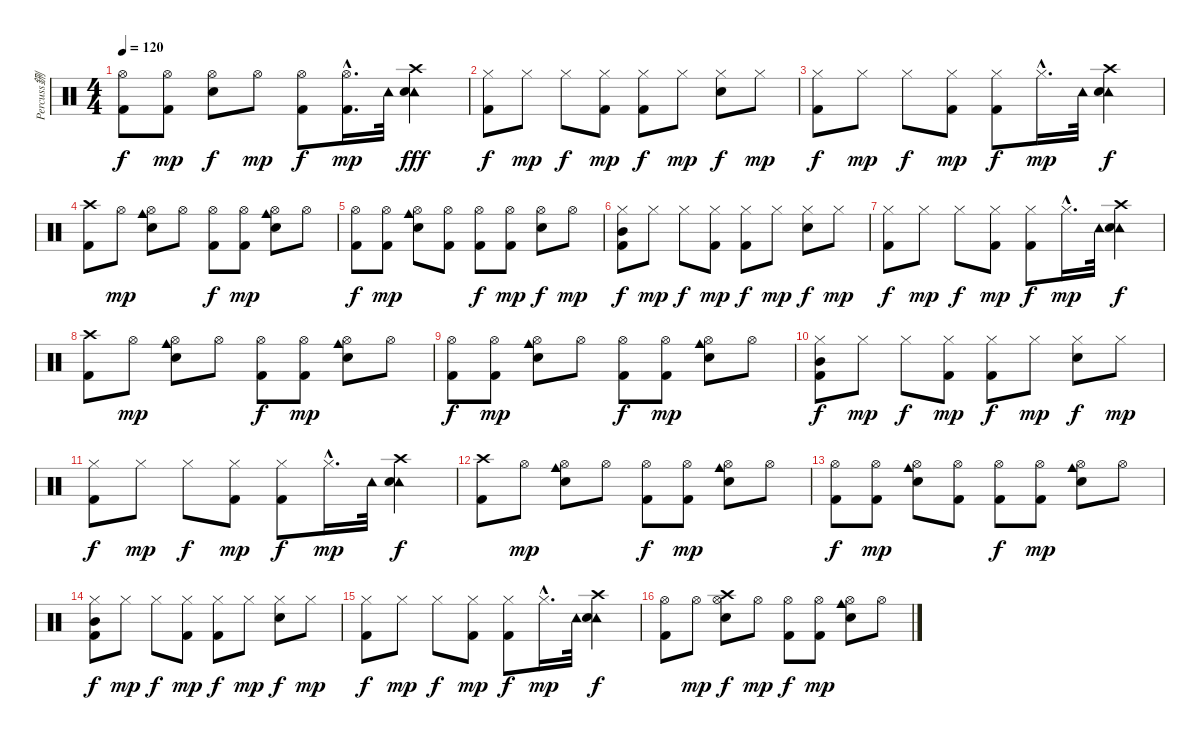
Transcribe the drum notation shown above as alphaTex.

\track ("Percuss鉶" "Percuss鉶") {instrument percussion}
\staff {score}
\articulation defaults
\ts (4 4)
\tempo 120
\clef neutral
\ks c
("Hi-Hat (open)" "Kick (hit) 2").8{dy f} ("Hi-Hat (open)" "Kick (hit) 2").8{dy mp} ("Hi-Hat (open)" "Snare (hit) 2").8{dy f} "Hi-Hat (open)".8{dy mp} ("Hi-Hat (open)" "Kick (hit) 2").8{dy f} ("Hi-Hat (open)"{hac} "Kick (hit) 2"{hac}).16{d dy mp} "Tambourine (hit)".32 ("Crash high (hit)" "Tambourine (hit)" "Snare (hit) 2").4{dy fff} |
("Hi-Hat (closed)" "Kick (hit) 2").8{dy f} "Hi-Hat (closed)".8{dy mp} "Hi-Hat (closed)".8{dy f} ("Hi-Hat (closed)" "Kick (hit) 2").8{dy mp} ("Hi-Hat (closed)" "Kick (hit) 2").8{dy f} "Hi-Hat (closed)".8{dy mp} ("Hi-Hat (closed)" "Snare (hit) 2").8{dy f} "Hi-Hat (closed)".8{dy mp} |
("Hi-Hat (closed)" "Kick (hit) 2").8{dy f} "Hi-Hat (closed)".8{dy mp} "Hi-Hat (closed)".8{dy f} ("Hi-Hat (closed)" "Kick (hit) 2").8{dy mp} ("Hi-Hat (closed)" "Kick (hit) 2").8{dy f} "Hi-Hat (closed)"{hac}.16{d dy mp} "Tambourine (hit)".32 ("Crash high (hit)" "Tambourine (hit)" "Snare (hit) 2").4{dy f} |
("Crash high (hit)" "Kick (hit) 2").8 "Hi-Hat (open)".8{dy mp} ("Cowbell medium (hit)" "Hi-Hat (open)" "Snare (hit) 2").8 "Hi-Hat (open)".8 ("Hi-Hat (open)" "Kick (hit) 2").8{dy f} ("Hi-Hat (open)" "Kick (hit) 2").8{dy mp} ("Cowbell medium (hit)" "Hi-Hat (open)" "Snare (hit) 2").8 "Hi-Hat (open)".8 |
("Hi-Hat (open)" "Kick (hit) 2").8{dy f} ("Hi-Hat (open)" "Kick (hit) 2").8{dy mp} ("Cowbell medium (hit)" "Hi-Hat (open)" "Snare (hit) 2").8 ("Hi-Hat (open)" "Kick (hit) 2").8 ("Hi-Hat (open)" "Kick (hit) 2").8{dy f} ("Hi-Hat (open)" "Kick (hit) 2").8{dy mp} ("Hi-Hat (open)" "Snare (hit) 2").8{dy f} "Hi-Hat (open)".8{dy mp} |
("Hi-Hat (closed)" "Mid Tom (hit)" "Kick (hit) 2").8{dy f} "Hi-Hat (closed)".8{dy mp} "Hi-Hat (closed)".8{dy f} ("Hi-Hat (closed)" "Kick (hit) 2").8{dy mp} ("Hi-Hat (closed)" "Kick (hit) 2").8{dy f} "Hi-Hat (closed)".8{dy mp} ("Hi-Hat (closed)" "Snare (hit) 2").8{dy f} "Hi-Hat (closed)".8{dy mp} |
("Hi-Hat (closed)" "Kick (hit) 2").8{dy f} "Hi-Hat (closed)".8{dy mp} "Hi-Hat (closed)".8{dy f} ("Hi-Hat (closed)" "Kick (hit) 2").8{dy mp} ("Hi-Hat (closed)" "Kick (hit) 2").8{dy f} "Hi-Hat (closed)"{hac}.16{d dy mp} "Tambourine (hit)".32 ("Crash high (hit)" "Tambourine (hit)" "Snare (hit) 2").4{dy f} |
("Crash high (hit)" "Kick (hit) 2").8 "Hi-Hat (open)".8{dy mp} ("Cowbell medium (hit)" "Hi-Hat (open)" "Snare (hit) 2").8 "Hi-Hat (open)".8 ("Hi-Hat (open)" "Kick (hit) 2").8{dy f} ("Hi-Hat (open)" "Kick (hit) 2").8{dy mp} ("Cowbell medium (hit)" "Hi-Hat (open)" "Snare (hit) 2").8 "Hi-Hat (open)".8 |
("Hi-Hat (open)" "Kick (hit) 2").8{dy f} ("Hi-Hat (open)" "Kick (hit) 2").8{dy mp} ("Cowbell medium (hit)" "Hi-Hat (open)" "Snare (hit) 2").8 "Hi-Hat (open)".8 ("Hi-Hat (open)" "Kick (hit) 2").8{dy f} ("Hi-Hat (open)" "Kick (hit) 2").8{dy mp} ("Cowbell medium (hit)" "Hi-Hat (open)" "Snare (hit) 2").8 "Hi-Hat (open)".8 |
("Hi-Hat (closed)" "Mid Tom (hit)" "Kick (hit) 2").8{dy f} "Hi-Hat (closed)".8{dy mp} "Hi-Hat (closed)".8{dy f} ("Hi-Hat (closed)" "Kick (hit) 2").8{dy mp} ("Hi-Hat (closed)" "Kick (hit) 2").8{dy f} "Hi-Hat (closed)".8{dy mp} ("Hi-Hat (closed)" "Snare (hit) 2").8{dy f} "Hi-Hat (closed)".8{dy mp} |
("Hi-Hat (closed)" "Kick (hit) 2").8{dy f} "Hi-Hat (closed)".8{dy mp} "Hi-Hat (closed)".8{dy f} ("Hi-Hat (closed)" "Kick (hit) 2").8{dy mp} ("Hi-Hat (closed)" "Kick (hit) 2").8{dy f} "Hi-Hat (closed)"{hac}.16{d dy mp} "Tambourine (hit)".32 ("Crash high (hit)" "Tambourine (hit)" "Snare (hit) 2").4{dy f} |
("Crash high (hit)" "Kick (hit) 2").8 "Hi-Hat (open)".8{dy mp} ("Cowbell medium (hit)" "Hi-Hat (open)" "Snare (hit) 2").8 "Hi-Hat (open)".8 ("Hi-Hat (open)" "Kick (hit) 2").8{dy f} ("Hi-Hat (open)" "Kick (hit) 2").8{dy mp} ("Cowbell medium (hit)" "Hi-Hat (open)" "Snare (hit) 2").8 "Hi-Hat (open)".8 |
("Hi-Hat (open)" "Kick (hit) 2").8{dy f} ("Hi-Hat (open)" "Kick (hit) 2").8{dy mp} ("Cowbell medium (hit)" "Hi-Hat (open)" "Snare (hit) 2").8 ("Hi-Hat (open)" "Kick (hit) 2").8 ("Hi-Hat (open)" "Kick (hit) 2").8{dy f} ("Hi-Hat (open)" "Kick (hit) 2").8{dy mp} ("Cowbell medium (hit)" "Hi-Hat (open)" "Snare (hit) 2").8 "Hi-Hat (open)".8 |
("Hi-Hat (closed)" "Mid Tom (hit)" "Kick (hit) 2").8{dy f} "Hi-Hat (closed)".8{dy mp} "Hi-Hat (closed)".8{dy f} ("Hi-Hat (closed)" "Kick (hit) 2").8{dy mp} ("Hi-Hat (closed)" "Kick (hit) 2").8{dy f} "Hi-Hat (closed)".8{dy mp} ("Hi-Hat (closed)" "Snare (hit) 2").8{dy f} "Hi-Hat (closed)".8{dy mp} |
("Hi-Hat (closed)" "Kick (hit) 2").8{dy f} "Hi-Hat (closed)".8{dy mp} "Hi-Hat (closed)".8{dy f} ("Hi-Hat (closed)" "Kick (hit) 2").8{dy mp} ("Hi-Hat (closed)" "Kick (hit) 2").8{dy f} "Hi-Hat (closed)"{hac}.16{d dy mp} "Tambourine (hit)".32 ("Crash high (hit)" "Tambourine (hit)" "Snare (hit) 2").4{dy f} |
("Hi-Hat (open)" "Kick (hit) 2").8 "Hi-Hat (open)".8{dy mp} ("Crash high (hit)" "Hi-Hat (open)" "Snare (hit) 2").8{dy f} "Hi-Hat (open)".8{dy mp} ("Hi-Hat (open)" "Kick (hit) 2").8{dy f} ("Hi-Hat (open)" "Kick (hit) 2").8{dy mp} ("Cowbell medium (hit)" "Hi-Hat (open)" "Snare (hit) 2").8 "Hi-Hat (open)".8
